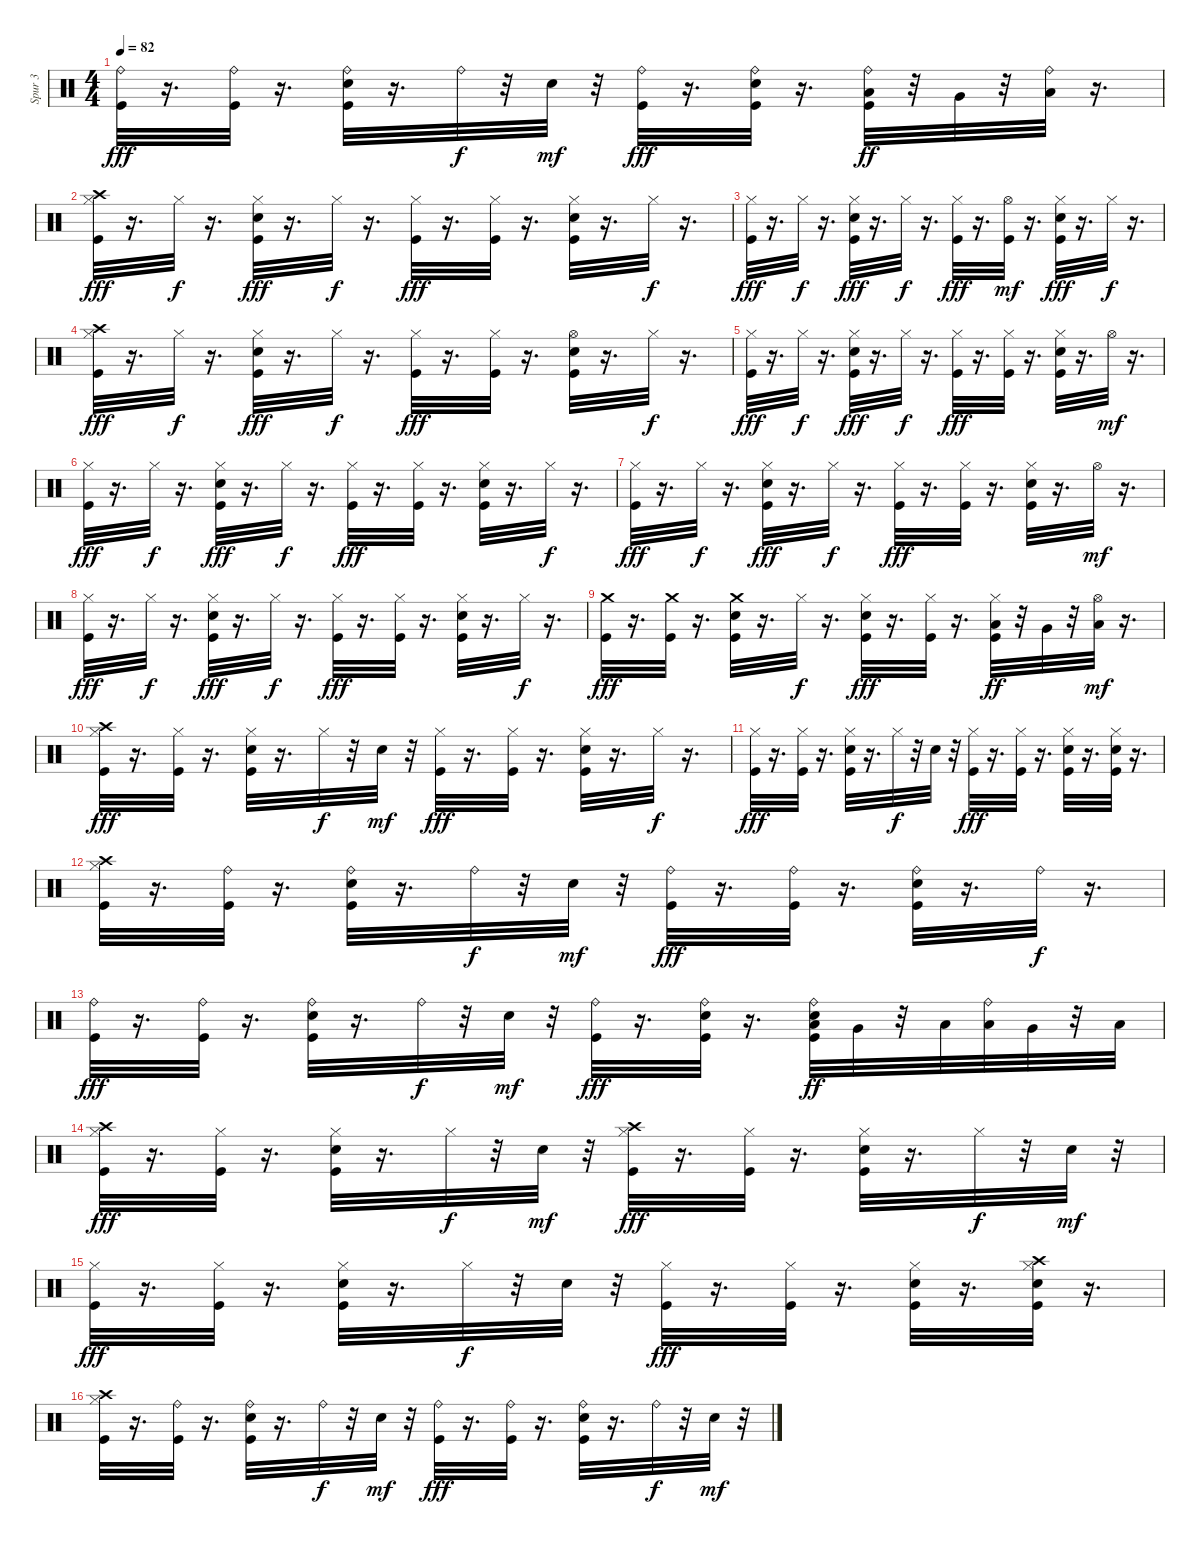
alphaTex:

\track ("Spur 3" "Spur 3") {instrument percussion}
\staff {score}
\articulation defaults
\ts (4 4)
\tempo 82
\clef neutral
\ks c
("Kick (hit)" "Ride (bell)").32{dy fff} r.16{d} ("Kick (hit)" "Ride (bell)").32 r.16{d} ("Snare (hit) 2" "Kick (hit)" "Ride (bell)").32 r.16{d} "Ride (bell)".32{dy f} r.32 "Snare (hit) 2".32{dy mf} r.32 ("Kick (hit)" "Ride (bell)").32{dy fff} r.16{d} ("Kick (hit)" "Snare (hit) 2" "Ride (bell)").32 r.16{d} ("Kick (hit)" "Low Tom (hit)" "Ride (bell)").32{dy ff} r.32 "Very Low Tom (hit)".32 r.32 ("Low Floor Tom (hit)" "Ride (bell)").32 r.16{d} |
("Hi-Hat (closed)" "Crash high (hit)" "Kick (hit)").32{dy fff} r.16{d} "Hi-Hat (closed)".32{dy f} r.16{d} ("Hi-Hat (closed)" "Snare (hit) 2" "Kick (hit)").32{dy fff} r.16{d} "Hi-Hat (closed)".32{dy f} r.16{d} ("Hi-Hat (closed)" "Kick (hit)").32{dy fff} r.16{d} ("Hi-Hat (closed)" "Kick (hit)").32 r.16{d} ("Hi-Hat (closed)" "Snare (hit) 2" "Kick (hit)").32 r.16{d} "Hi-Hat (closed)".32{dy f} r.16{d} |
("Kick (hit)" "Hi-Hat (closed)").32{dy fff} r.16{d} "Hi-Hat (closed)".32{dy f} r.16{d} ("Snare (hit) 2" "Kick (hit)" "Hi-Hat (closed)").32{dy fff} r.16{d} "Hi-Hat (closed)".32{dy f} r.16{d} ("Kick (hit)" "Hi-Hat (closed)").32{dy fff} r.16{d} ("Kick (hit)" "Hi-Hat (open)").32{dy mf} r.16{d} ("Snare (hit) 2" "Kick (hit)" "Hi-Hat (closed)").32{dy fff} r.16{d} "Hi-Hat (closed)".32{dy f} r.16{d} |
("Hi-Hat (closed)" "Crash high (hit)" "Kick (hit)").32{dy fff} r.16{d} "Hi-Hat (closed)".32{dy f} r.16{d} ("Hi-Hat (closed)" "Snare (hit) 2" "Kick (hit)").32{dy fff} r.16{d} "Hi-Hat (closed)".32{dy f} r.16{d} ("Hi-Hat (closed)" "Kick (hit)").32{dy fff} r.16{d} ("Hi-Hat (closed)" "Kick (hit)").32 r.16{d} ("Hi-Hat (open)" "Snare (hit) 2" "Kick (hit)").32 r.16{d} "Hi-Hat (closed)".32{dy f} r.16{d} |
("Kick (hit)" "Hi-Hat (closed)").32{dy fff} r.16{d} "Hi-Hat (closed)".32{dy f} r.16{d} ("Snare (hit) 2" "Kick (hit)" "Hi-Hat (closed)").32{dy fff} r.16{d} "Hi-Hat (closed)".32{dy f} r.16{d} ("Kick (hit)" "Hi-Hat (closed)").32{dy fff} r.16{d} ("Kick (hit)" "Hi-Hat (closed)").32 r.16{d} ("Snare (hit) 2" "Kick (hit)" "Hi-Hat (closed)").32 r.16{d} "Hi-Hat (open)".32{dy mf} r.16{d} |
("Hi-Hat (closed)" "Kick (hit)").32{dy fff} r.16{d} "Hi-Hat (closed)".32{dy f} r.16{d} ("Hi-Hat (closed)" "Snare (hit) 2" "Kick (hit)").32{dy fff} r.16{d} "Hi-Hat (closed)".32{dy f} r.16{d} ("Hi-Hat (closed)" "Kick (hit)").32{dy fff} r.16{d} ("Hi-Hat (closed)" "Kick (hit)").32 r.16{d} ("Hi-Hat (closed)" "Snare (hit) 2" "Kick (hit)").32 r.16{d} "Hi-Hat (closed)".32{dy f} r.16{d} |
("Hi-Hat (closed)" "Kick (hit)").32{dy fff} r.16{d} "Hi-Hat (closed)".32{dy f} r.16{d} ("Hi-Hat (closed)" "Snare (hit) 2" "Kick (hit)").32{dy fff} r.16{d} "Hi-Hat (closed)".32{dy f} r.16{d} ("Hi-Hat (closed)" "Kick (hit)").32{dy fff} r.16{d} ("Hi-Hat (closed)" "Kick (hit)").32 r.16{d} ("Hi-Hat (closed)" "Snare (hit) 2" "Kick (hit)").32 r.16{d} "Hi-Hat (open)".32{dy mf} r.16{d} |
("Hi-Hat (closed)" "Kick (hit)").32{dy fff} r.16{d} "Hi-Hat (closed)".32{dy f} r.16{d} ("Hi-Hat (closed)" "Snare (hit) 2" "Kick (hit)").32{dy fff} r.16{d} "Hi-Hat (closed)".32{dy f} r.16{d} ("Hi-Hat (closed)" "Kick (hit)").32{dy fff} r.16{d} ("Hi-Hat (closed)" "Kick (hit)").32 r.16{d} ("Hi-Hat (closed)" "Snare (hit) 2" "Kick (hit)").32 r.16{d} "Hi-Hat (closed)".32{dy f} r.16{d} |
("Crash medium (hit)" "Kick (hit)").32{dy fff} r.16{d} ("Kick (hit)" "Crash medium (hit)").32 r.16{d} ("Snare (hit) 2" "Kick (hit)" "Crash medium (hit)").32 r.16{d} "Hi-Hat (closed)".32{dy f} r.16{d} ("Kick (hit)" "Snare (hit) 2" "Hi-Hat (closed)").32{dy fff} r.16{d} ("Kick (hit)" "Hi-Hat (closed)").32 r.16{d} ("Kick (hit)" "Low Tom (hit)" "Hi-Hat (closed)").32{dy ff} r.32 "Very Low Tom (hit)".32 r.32 ("Low Floor Tom (hit)" "Hi-Hat (open)").32{dy mf} r.16{d} |
("Hi-Hat (closed)" "Crash high (hit)" "Kick (hit)").32{dy fff} r.16{d} ("Kick (hit)" "Hi-Hat (closed)").32 r.16{d} ("Hi-Hat (closed)" "Snare (hit) 2" "Kick (hit)").32 r.16{d} "Hi-Hat (closed)".32{dy f} r.32 "Snare (hit) 2".32{dy mf} r.32 ("Hi-Hat (closed)" "Kick (hit)").32{dy fff} r.16{d} ("Kick (hit)" "Hi-Hat (closed)").32 r.16{d} ("Hi-Hat (closed)" "Snare (hit) 2" "Kick (hit)").32 r.16{d} "Hi-Hat (closed)".32{dy f} r.16{d} |
("Hi-Hat (closed)" "Kick (hit)").32{dy fff} r.16{d} ("Kick (hit)" "Hi-Hat (closed)").32 r.16{d} ("Hi-Hat (closed)" "Snare (hit) 2" "Kick (hit)").32 r.16{d} "Hi-Hat (closed)".32{dy f} r.32 "Snare (hit) 2".32 r.32 ("Hi-Hat (closed)" "Kick (hit)").32{dy fff} r.16{d} ("Hi-Hat (closed)" "Kick (hit)").32 r.16{d} ("Hi-Hat (closed)" "Snare (hit) 2" "Kick (hit)").32 r.16{d} ("Snare (hit) 2" "Kick (hit)" "Hi-Hat (closed)").32 r.16{d} |
("Crash high (hit)" "Kick (hit)" "Hi-Hat (closed)").32 r.16{d} ("Ride (bell)" "Kick (hit)").32 r.16{d} ("Ride (bell)" "Snare (hit) 2" "Kick (hit)").32 r.16{d} "Ride (bell)".32{dy f} r.32 "Snare (hit) 2".32{dy mf} r.32 ("Kick (hit)" "Ride (bell)").32{dy fff} r.16{d} ("Ride (bell)" "Kick (hit)").32 r.16{d} ("Snare (hit) 2" "Kick (hit)" "Ride (bell)").32 r.16{d} "Ride (bell)".32{dy f} r.16{d} |
("Kick (hit)" "Ride (bell)").32{dy fff} r.16{d} ("Kick (hit)" "Ride (bell)").32 r.16{d} ("Snare (hit) 2" "Kick (hit)" "Ride (bell)").32 r.16{d} "Ride (bell)".32{dy f} r.32 "Snare (hit) 2".32{dy mf} r.32 ("Kick (hit)" "Ride (bell)").32{dy fff} r.16{d} ("Kick (hit)" "Snare (hit) 2" "Ride (bell)").32 r.16{d} ("Snare (hit) 2" "Kick (hit)" "Low Tom (hit)" "Ride (bell)").32{dy ff} "Very Low Tom (hit)".32 r.32 "Low Floor Tom (hit)".32 ("Ride (bell)" "Low Tom (hit)").32 "Very Low Tom (hit)".32 r.32 "Low Floor Tom (hit)".32 |
("Hi-Hat (closed)" "Crash high (hit)" "Kick (hit)").32{dy fff} r.16{d} ("Kick (hit)" "Hi-Hat (closed)").32 r.16{d} ("Hi-Hat (closed)" "Snare (hit) 2" "Kick (hit)").32 r.16{d} "Hi-Hat (closed)".32{dy f} r.32 "Snare (hit) 2".32{dy mf} r.32 ("Hi-Hat (closed)" "Kick (hit)" "Crash high (hit)").32{dy fff} r.16{d} ("Kick (hit)" "Hi-Hat (closed)").32 r.16{d} ("Hi-Hat (closed)" "Snare (hit) 2" "Kick (hit)").32 r.16{d} "Hi-Hat (closed)".32{dy f} r.32 "Snare (hit) 2".32{dy mf} r.32 |
("Kick (hit)" "Hi-Hat (closed)").32{dy fff} r.16{d} ("Kick (hit)" "Hi-Hat (closed)").32 r.16{d} ("Snare (hit) 2" "Kick (hit)" "Hi-Hat (closed)").32 r.16{d} "Hi-Hat (closed)".32{dy f} r.32 "Snare (hit) 2".32 r.32 ("Kick (hit)" "Hi-Hat (closed)").32{dy fff} r.16{d} ("Kick (hit)" "Hi-Hat (closed)").32 r.16{d} ("Snare (hit) 2" "Kick (hit)" "Hi-Hat (closed)").32 r.16{d} ("Crash high (hit)" "Snare (hit) 2" "Kick (hit)" "Hi-Hat (closed)").32 r.16{d} |
("Crash high (hit)" "Kick (hit)" "Hi-Hat (closed)").32 r.16{d} ("Ride (bell)" "Kick (hit)").32 r.16{d} ("Ride (bell)" "Snare (hit) 2" "Kick (hit)").32 r.16{d} "Ride (bell)".32{dy f} r.32 "Snare (hit) 2".32{dy mf} r.32 ("Kick (hit)" "Ride (bell)").32{dy fff} r.16{d} ("Ride (bell)" "Kick (hit)").32 r.16{d} ("Snare (hit) 2" "Kick (hit)" "Ride (bell)").32 r.16{d} "Ride (bell)".32{dy f} r.32 "Snare (hit) 2".32{dy mf} r.32
